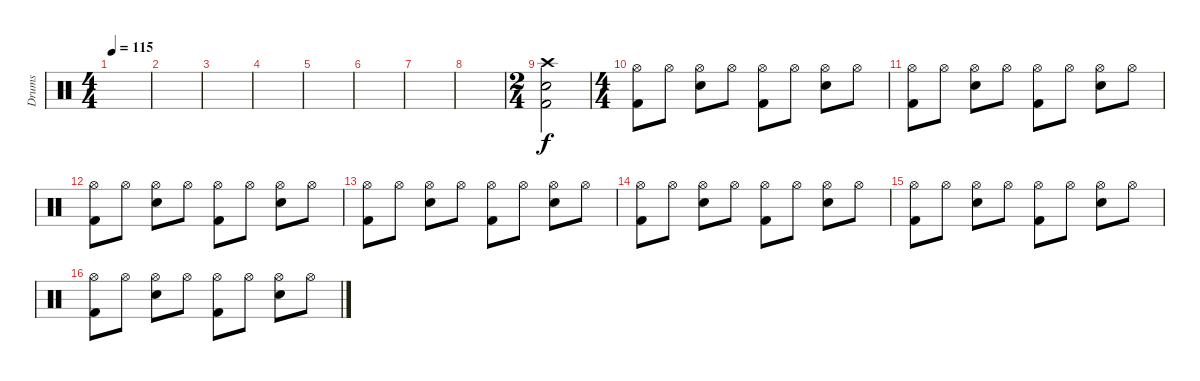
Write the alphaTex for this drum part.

\track ("Drums" "Drums") {instrument percussion}
\staff {score}
\articulation defaults
\ts (4 4)
\tempo 115
\clef neutral
\ks c
|
|
|
|
|
|
|
|
\ts (2 4)
("Crash high (hit)" "Snare (hit) 2" "Kick (hit) 2").2 |
\ts (4 4)
("Hi-Hat (open)" "Kick (hit) 2").8 "Hi-Hat (open)".8 ("Hi-Hat (open)" "Snare (hit) 2").8 "Hi-Hat (open)".8 ("Hi-Hat (open)" "Kick (hit) 2").8 "Hi-Hat (open)".8 ("Hi-Hat (open)" "Snare (hit) 2").8 "Hi-Hat (open)".8 |
("Hi-Hat (open)" "Kick (hit) 2").8 "Hi-Hat (open)".8 ("Hi-Hat (open)" "Snare (hit) 2").8 "Hi-Hat (open)".8 ("Hi-Hat (open)" "Kick (hit) 2").8 "Hi-Hat (open)".8 ("Hi-Hat (open)" "Snare (hit) 2").8 "Hi-Hat (open)".8 |
("Hi-Hat (open)" "Kick (hit) 2").8 "Hi-Hat (open)".8 ("Hi-Hat (open)" "Snare (hit) 2").8 "Hi-Hat (open)".8 ("Hi-Hat (open)" "Kick (hit) 2").8 "Hi-Hat (open)".8 ("Hi-Hat (open)" "Snare (hit) 2").8 "Hi-Hat (open)".8 |
("Hi-Hat (open)" "Kick (hit) 2").8 "Hi-Hat (open)".8 ("Hi-Hat (open)" "Snare (hit) 2").8 "Hi-Hat (open)".8 ("Hi-Hat (open)" "Kick (hit) 2").8 "Hi-Hat (open)".8 ("Hi-Hat (open)" "Snare (hit) 2").8 "Hi-Hat (open)".8 |
("Hi-Hat (open)" "Kick (hit) 2").8 "Hi-Hat (open)".8 ("Hi-Hat (open)" "Snare (hit) 2").8 "Hi-Hat (open)".8 ("Hi-Hat (open)" "Kick (hit) 2").8 "Hi-Hat (open)".8 ("Hi-Hat (open)" "Snare (hit) 2").8 "Hi-Hat (open)".8 |
("Hi-Hat (open)" "Kick (hit) 2").8 "Hi-Hat (open)".8 ("Hi-Hat (open)" "Snare (hit) 2").8 "Hi-Hat (open)".8 ("Hi-Hat (open)" "Kick (hit) 2").8 "Hi-Hat (open)".8 ("Hi-Hat (open)" "Snare (hit) 2").8 "Hi-Hat (open)".8 |
("Hi-Hat (open)" "Kick (hit) 2").8 "Hi-Hat (open)".8 ("Hi-Hat (open)" "Snare (hit) 2").8 "Hi-Hat (open)".8 ("Hi-Hat (open)" "Kick (hit) 2").8 "Hi-Hat (open)".8 ("Hi-Hat (open)" "Snare (hit) 2").8 "Hi-Hat (open)".8
